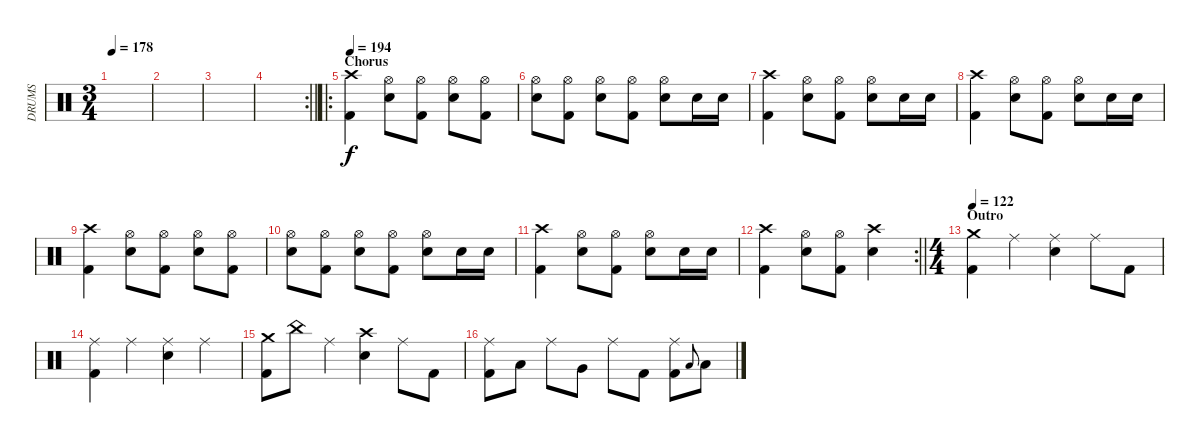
\track ("DRUMS" "DRUMS") {instrument percussion}
\staff {score}
\articulation defaults
\ts (3 4)
\tempo 178
\clef neutral
\ks c
|
|
|
\rc 2
\barLineRight lightlight
|
\ro
\section ("" "Chorus")
\tempo 194
("Crash high (hit)" "Kick (hit) 2").4 ("Hi-Hat (open)" "Snare (hit) 2").8 ("Hi-Hat (open)" "Kick (hit) 2").8 ("Hi-Hat (open)" "Snare (hit) 2").8 ("Hi-Hat (open)" "Kick (hit) 2").8 |
("Hi-Hat (open)" "Snare (hit) 2").8 ("Hi-Hat (open)" "Kick (hit) 2").8 ("Hi-Hat (open)" "Snare (hit) 2").8 ("Hi-Hat (open)" "Kick (hit) 2").8 ("Hi-Hat (open)" "Snare (hit) 2").8 "Snare (hit) 2".16 "Snare (hit) 2".16 |
("Crash high (hit)" "Kick (hit) 2").4 ("Hi-Hat (open)" "Snare (hit) 2").8 ("Hi-Hat (open)" "Kick (hit) 2").8 ("Hi-Hat (open)" "Snare (hit) 2").8 "Snare (hit) 2".16 "Snare (hit) 2".16 |
("Crash high (hit)" "Kick (hit) 2").4 ("Hi-Hat (open)" "Snare (hit) 2").8 ("Hi-Hat (open)" "Kick (hit) 2").8 ("Hi-Hat (open)" "Snare (hit) 2").8 "Snare (hit) 2".16 "Snare (hit) 2".16 |
("Crash high (hit)" "Kick (hit) 2").4 ("Hi-Hat (open)" "Snare (hit) 2").8 ("Hi-Hat (open)" "Kick (hit) 2").8 ("Hi-Hat (open)" "Snare (hit) 2").8 ("Hi-Hat (open)" "Kick (hit) 2").8 |
("Hi-Hat (open)" "Snare (hit) 2").8 ("Hi-Hat (open)" "Kick (hit) 2").8 ("Hi-Hat (open)" "Snare (hit) 2").8 ("Hi-Hat (open)" "Kick (hit) 2").8 ("Hi-Hat (open)" "Snare (hit) 2").8 "Snare (hit) 2".16 "Snare (hit) 2".16 |
("Crash high (hit)" "Kick (hit) 2").4 ("Hi-Hat (open)" "Snare (hit) 2").8 ("Hi-Hat (open)" "Kick (hit) 2").8 ("Hi-Hat (open)" "Snare (hit) 2").8 "Snare (hit) 2".16 "Snare (hit) 2".16 |
\rc 2
\barLineRight lightlight
("Crash high (hit)" "Kick (hit) 2").4 ("Hi-Hat (open)" "Snare (hit) 2").8 ("Hi-Hat (open)" "Kick (hit) 2").8 ("Crash high (hit)" "Snare (hit) 2").4 |
\ts (4 4)
\section ("" "Outro")
\tempo 122
("Crash medium (hit)" "Kick (hit) 2").4 "Ride (middle)".4 ("Ride (middle)" "Snare (hit) 2").4 "Ride (middle)".8 "Kick (hit) 2".8 |
("Ride (middle)" "Kick (hit) 2").4 "Ride (middle)".4 ("Ride (middle)" "Snare (hit) 2").4 "Ride (middle)".4 |
("Crash medium (hit)" "Kick (hit) 2").8 "China (hit)".8 "Ride (middle)".4 ("Crash high (hit)" "Snare (hit) 2").4 "Ride (middle)".8 "Kick (hit) 2".8 |
("Ride (middle)" "Kick (hit) 2").8 "Low Tom (hit)".8 "Ride (middle)".8 "Very Low Tom (hit)".8 "Ride (middle)".8 "Kick (hit) 2".8 ("Ride (middle)" "Kick (hit) 2").8 "Low Floor Tom (hit)".8{gr onbeat} "Low Floor Tom (hit)".8
